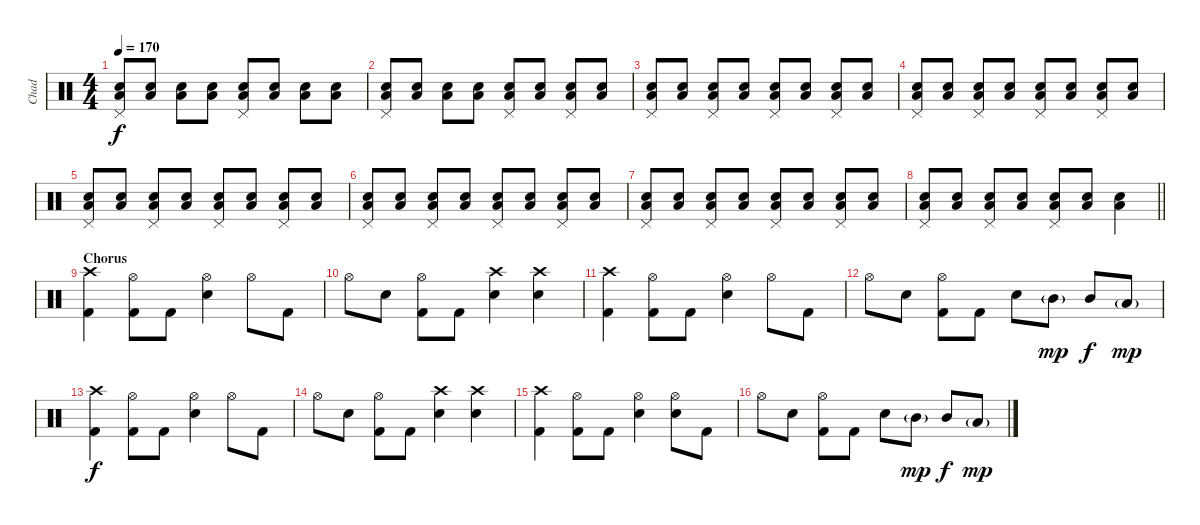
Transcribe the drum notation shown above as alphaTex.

\track ("Chad" "Chad") {instrument percussion}
\staff {score}
\articulation defaults
\ts (4 4)
\tempo 170
\clef neutral
\ks c
("Pedal Hi-Hat (hit)" "Snare (hit) 2" "Low Tom (hit)").8{dy f} ("Snare (hit) 2" "Low Tom (hit)").8 ("Snare (hit) 2" "Low Tom (hit)").8 ("Snare (hit) 2" "Low Tom (hit)").8 ("Pedal Hi-Hat (hit)" "Snare (hit) 2" "Low Tom (hit)").8 ("Snare (hit) 2" "Low Tom (hit)").8 ("Snare (hit) 2" "Low Tom (hit)").8 ("Snare (hit) 2" "Low Tom (hit)").8 |
("Pedal Hi-Hat (hit)" "Snare (hit) 2" "Low Tom (hit)").8 ("Snare (hit) 2" "Low Tom (hit)").8 ("Snare (hit) 2" "Low Tom (hit)").8 ("Snare (hit) 2" "Low Tom (hit)").8 ("Pedal Hi-Hat (hit)" "Snare (hit) 2" "Low Tom (hit)").8 ("Snare (hit) 2" "Low Tom (hit)").8 ("Pedal Hi-Hat (hit)" "Snare (hit) 2" "Low Tom (hit)").8 ("Snare (hit) 2" "Low Tom (hit)").8 |
("Pedal Hi-Hat (hit)" "Snare (hit) 2" "Low Tom (hit)").8 ("Snare (hit) 2" "Low Tom (hit)").8 ("Pedal Hi-Hat (hit)" "Snare (hit) 2" "Low Tom (hit)").8 ("Snare (hit) 2" "Low Tom (hit)").8 ("Pedal Hi-Hat (hit)" "Snare (hit) 2" "Low Tom (hit)").8 ("Snare (hit) 2" "Low Tom (hit)").8 ("Pedal Hi-Hat (hit)" "Snare (hit) 2" "Low Tom (hit)").8 ("Snare (hit) 2" "Low Tom (hit)").8 |
("Pedal Hi-Hat (hit)" "Snare (hit) 2" "Low Tom (hit)").8 ("Snare (hit) 2" "Low Tom (hit)").8 ("Pedal Hi-Hat (hit)" "Snare (hit) 2" "Low Tom (hit)").8 ("Snare (hit) 2" "Low Tom (hit)").8 ("Pedal Hi-Hat (hit)" "Snare (hit) 2" "Low Tom (hit)").8 ("Snare (hit) 2" "Low Tom (hit)").8 ("Pedal Hi-Hat (hit)" "Snare (hit) 2" "Low Tom (hit)").8 ("Snare (hit) 2" "Low Tom (hit)").8 |
("Pedal Hi-Hat (hit)" "Snare (hit) 2" "Low Tom (hit)").8 ("Snare (hit) 2" "Low Tom (hit)").8 ("Pedal Hi-Hat (hit)" "Snare (hit) 2" "Low Tom (hit)").8 ("Snare (hit) 2" "Low Tom (hit)").8 ("Pedal Hi-Hat (hit)" "Snare (hit) 2" "Low Tom (hit)").8 ("Snare (hit) 2" "Low Tom (hit)").8 ("Pedal Hi-Hat (hit)" "Snare (hit) 2" "Low Tom (hit)").8 ("Snare (hit) 2" "Low Tom (hit)").8 |
("Pedal Hi-Hat (hit)" "Snare (hit) 2" "Low Tom (hit)").8 ("Snare (hit) 2" "Low Tom (hit)").8 ("Pedal Hi-Hat (hit)" "Snare (hit) 2" "Low Tom (hit)").8 ("Snare (hit) 2" "Low Tom (hit)").8 ("Pedal Hi-Hat (hit)" "Snare (hit) 2" "Low Tom (hit)").8 ("Snare (hit) 2" "Low Tom (hit)").8 ("Pedal Hi-Hat (hit)" "Snare (hit) 2" "Low Tom (hit)").8 ("Snare (hit) 2" "Low Tom (hit)").8 |
("Pedal Hi-Hat (hit)" "Snare (hit) 2" "Low Tom (hit)").8{volume 10} ("Snare (hit) 2" "Low Tom (hit)").8 ("Pedal Hi-Hat (hit)" "Snare (hit) 2" "Low Tom (hit)").8 ("Snare (hit) 2" "Low Tom (hit)").8 ("Pedal Hi-Hat (hit)" "Snare (hit) 2" "Low Tom (hit)").8 ("Snare (hit) 2" "Low Tom (hit)").8 ("Pedal Hi-Hat (hit)" "Snare (hit) 2" "Low Tom (hit)").8 ("Snare (hit) 2" "Low Tom (hit)").8 |
\barLineRight lightlight
("Pedal Hi-Hat (hit)" "Snare (hit) 2" "Low Tom (hit)").8 ("Snare (hit) 2" "Low Tom (hit)").8 ("Pedal Hi-Hat (hit)" "Snare (hit) 2" "Low Tom (hit)").8 ("Snare (hit) 2" "Low Tom (hit)").8 ("Pedal Hi-Hat (hit)" "Snare (hit) 2" "Low Tom (hit)").8 ("Snare (hit) 2" "Low Tom (hit)").8 ("Snare (hit) 2" "Low Tom (hit)").4 |
\section ("" "Chorus")
("Crash high (hit)" "Kick (hit) 2").4 ("Hi-Hat (open)" "Kick (hit) 2").8 "Kick (hit) 2".8 ("Hi-Hat (open)" "Snare (hit) 2").4 "Hi-Hat (open)".8 "Kick (hit) 2".8 |
"Hi-Hat (open)".8 "Snare (hit) 2".8 ("Hi-Hat (open)" "Kick (hit) 2").8 "Kick (hit) 2".8 ("Crash high (hit)" "Snare (hit) 2").4 ("Crash high (hit)" "Snare (hit) 2").4 |
("Crash high (hit)" "Kick (hit) 2").4 ("Hi-Hat (open)" "Kick (hit) 2").8 "Kick (hit) 2".8 ("Hi-Hat (open)" "Snare (hit) 2").4 "Hi-Hat (open)".8 "Kick (hit) 2".8 |
"Hi-Hat (open)".8 "Snare (hit) 2".8 ("Hi-Hat (open)" "Kick (hit) 2").8 "Kick (hit) 2".8 "Snare (hit) 2".8 "Mid Tom (hit)"{g}.8{dy mp} "Mid Tom (hit)".8{dy f} "Low Tom (hit)"{g}.8{dy mp} |
("Crash high (hit)" "Kick (hit) 2").4{dy f} ("Hi-Hat (open)" "Kick (hit) 2").8 "Kick (hit) 2".8 ("Hi-Hat (open)" "Snare (hit) 2").4 "Hi-Hat (open)".8 "Kick (hit) 2".8 |
"Hi-Hat (open)".8 "Snare (hit) 2".8 ("Hi-Hat (open)" "Kick (hit) 2").8 "Kick (hit) 2".8 ("Crash high (hit)" "Snare (hit) 2").4 ("Crash high (hit)" "Snare (hit) 2").4 |
("Crash high (hit)" "Kick (hit) 2").4 ("Hi-Hat (open)" "Kick (hit) 2").8 "Kick (hit) 2".8 ("Hi-Hat (open)" "Snare (hit) 2").4 ("Hi-Hat (open)" "Snare (hit) 2").8 "Kick (hit) 2".8 |
"Hi-Hat (open)".8 "Snare (hit) 2".8 ("Hi-Hat (open)" "Kick (hit) 2").8 "Kick (hit) 2".8 "Snare (hit) 2".8 "Mid Tom (hit)"{g}.8{dy mp} "Mid Tom (hit)".8{dy f} "Low Tom (hit)"{g}.8{dy mp}
